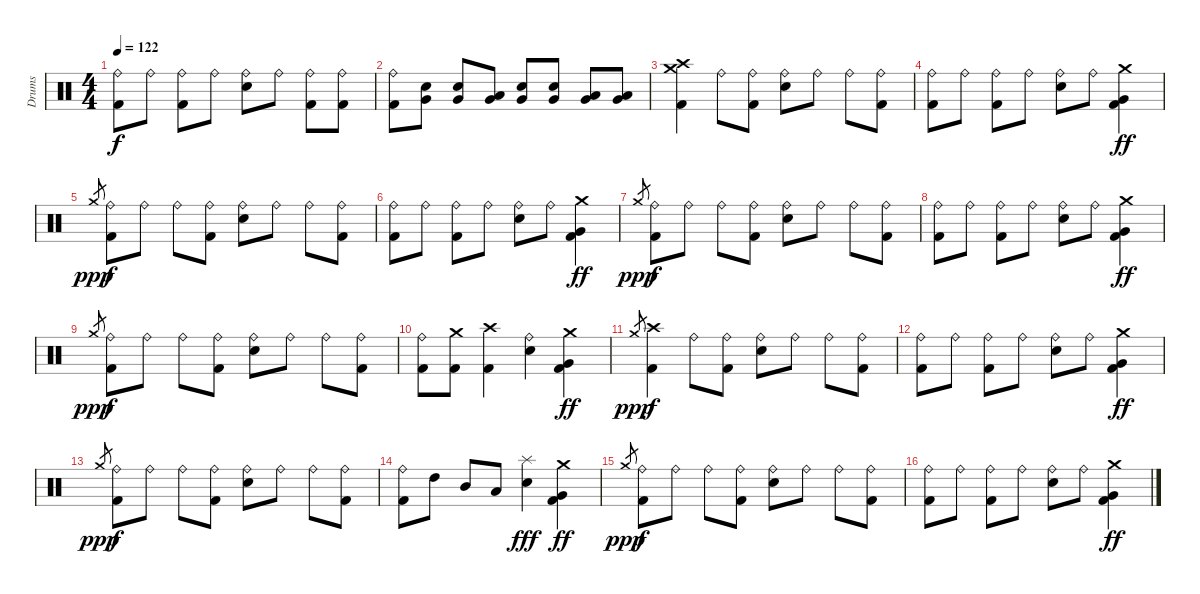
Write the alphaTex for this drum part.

\track ("Drums" "Drums") {instrument percussion}
\staff {score}
\articulation defaults
\ts (4 4)
\tempo 122
\clef neutral
\ks c
("Ride (bell)" "Kick (hit) 2").8{dy f} "Ride (bell)".8 ("Ride (bell)" "Kick (hit) 2").8 "Ride (bell)".8 ("Ride (bell)" "Snare (hit) 2").8 "Ride (bell)".8 ("Ride (bell)" "Kick (hit) 2").8 ("Ride (bell)" "Kick (hit) 2").8 |
("Ride (bell)" "Kick (hit) 2").8 ("Snare (hit) 2" "Very Low Tom (hit)").8 ("Snare (hit) 2" "Very Low Tom (hit)").8 ("Low Tom (hit)" "Very Low Tom (hit)").8 ("Snare (hit) 2" "Very Low Tom (hit)").8 ("Snare (hit) 2" "Very Low Tom (hit)").8 ("Low Tom (hit)" "Very Low Tom (hit)").8 ("Low Tom (hit)" "Very Low Tom (hit)").8 |
("Crash high (hit)" "Crash medium (hit)" "Kick (hit) 2").4 "Ride (bell)".8 ("Ride (bell)" "Kick (hit) 2").8 ("Ride (bell)" "Snare (hit) 2").8 "Ride (bell)".8 "Ride (bell)".8 ("Ride (bell)" "Kick (hit) 2").8 |
("Ride (bell)" "Kick (hit) 2").8 "Ride (bell)".8 ("Ride (bell)" "Kick (hit) 2").8 "Ride (bell)".8 ("Ride (bell)" "Snare (hit) 2").8 "Ride (bell)".8 ("Crash medium (hit)" "Very Low Tom (hit)" "Kick (hit) 2").4{dy ff} |
"Crash medium (hit)".8{gr dy ppp} ("Ride (bell)" "Kick (hit) 2").8{dy f} "Ride (bell)".8 "Ride (bell)".8 ("Ride (bell)" "Kick (hit) 2").8 ("Ride (bell)" "Snare (hit) 2").8 "Ride (bell)".8 "Ride (bell)".8 ("Ride (bell)" "Kick (hit) 2").8 |
("Ride (bell)" "Kick (hit) 2").8 "Ride (bell)".8 ("Ride (bell)" "Kick (hit) 2").8 "Ride (bell)".8 ("Ride (bell)" "Snare (hit) 2").8 "Ride (bell)".8 ("Crash medium (hit)" "Very Low Tom (hit)" "Kick (hit) 2").4{dy ff} |
"Crash medium (hit)".8{gr dy ppp} ("Ride (bell)" "Kick (hit) 2").8{dy f} "Ride (bell)".8 "Ride (bell)".8 ("Ride (bell)" "Kick (hit) 2").8 ("Ride (bell)" "Snare (hit) 2").8 "Ride (bell)".8 "Ride (bell)".8 ("Ride (bell)" "Kick (hit) 2").8 |
("Ride (bell)" "Kick (hit) 2").8 "Ride (bell)".8 ("Ride (bell)" "Kick (hit) 2").8 "Ride (bell)".8 ("Ride (bell)" "Snare (hit) 2").8 "Ride (bell)".8 ("Crash medium (hit)" "Very Low Tom (hit)" "Kick (hit) 2").4{dy ff} |
"Crash medium (hit)".8{gr dy ppp} ("Ride (bell)" "Kick (hit) 2").8{dy f} "Ride (bell)".8 "Ride (bell)".8 ("Ride (bell)" "Kick (hit) 2").8 ("Ride (bell)" "Snare (hit) 2").8 "Ride (bell)".8 "Ride (bell)".8 ("Ride (bell)" "Kick (hit) 2").8 |
("Ride (bell)" "Kick (hit) 2").8 ("Crash medium (hit)" "Kick (hit) 2").8 ("Crash high (hit)" "Kick (hit) 2").4 ("Ride (bell)" "Snare (hit) 2").4 ("Crash medium (hit)" "Very Low Tom (hit)" "Kick (hit) 2").4{dy ff} |
"Crash medium (hit)".8{gr dy ppp} ("Crash high (hit)" "Kick (hit) 2").4{dy f} "Ride (bell)".8 ("Ride (bell)" "Kick (hit) 2").8 ("Ride (bell)" "Snare (hit) 2").8 "Ride (bell)".8 "Ride (bell)".8 ("Ride (bell)" "Kick (hit) 2").8 |
("Ride (bell)" "Kick (hit) 2").8 "Ride (bell)".8 ("Ride (bell)" "Kick (hit) 2").8 "Ride (bell)".8 ("Ride (bell)" "Snare (hit) 2").8 "Ride (bell)".8 ("Crash medium (hit)" "Very Low Tom (hit)" "Kick (hit) 2").4{dy ff} |
"Crash medium (hit)".8{gr dy ppp} ("Ride (bell)" "Kick (hit) 2").8{dy f} "Ride (bell)".8 "Ride (bell)".8 ("Ride (bell)" "Kick (hit) 2").8 ("Ride (bell)" "Snare (hit) 2").8 "Ride (bell)".8 "Ride (bell)".8 ("Ride (bell)" "Kick (hit) 2").8 |
("Ride (bell)" "Kick (hit) 2").8 "High Tom (hit)".8 "Mid Tom (hit)".8 "Low Tom (hit)".8 ("Splash (hit)" "Snare (hit) 2").4{dy fff} ("Crash medium (hit)" "Very Low Tom (hit)" "Kick (hit) 2").4{dy ff} |
"Crash medium (hit)".8{gr dy ppp} ("Ride (bell)" "Kick (hit) 2").8{dy f} "Ride (bell)".8 "Ride (bell)".8 ("Ride (bell)" "Kick (hit) 2").8 ("Ride (bell)" "Snare (hit) 2").8 "Ride (bell)".8 "Ride (bell)".8 ("Ride (bell)" "Kick (hit) 2").8 |
("Ride (bell)" "Kick (hit) 2").8 "Ride (bell)".8 ("Ride (bell)" "Kick (hit) 2").8 "Ride (bell)".8 ("Ride (bell)" "Snare (hit) 2").8 "Ride (bell)".8 ("Crash medium (hit)" "Very Low Tom (hit)" "Kick (hit) 2").4{dy ff}
